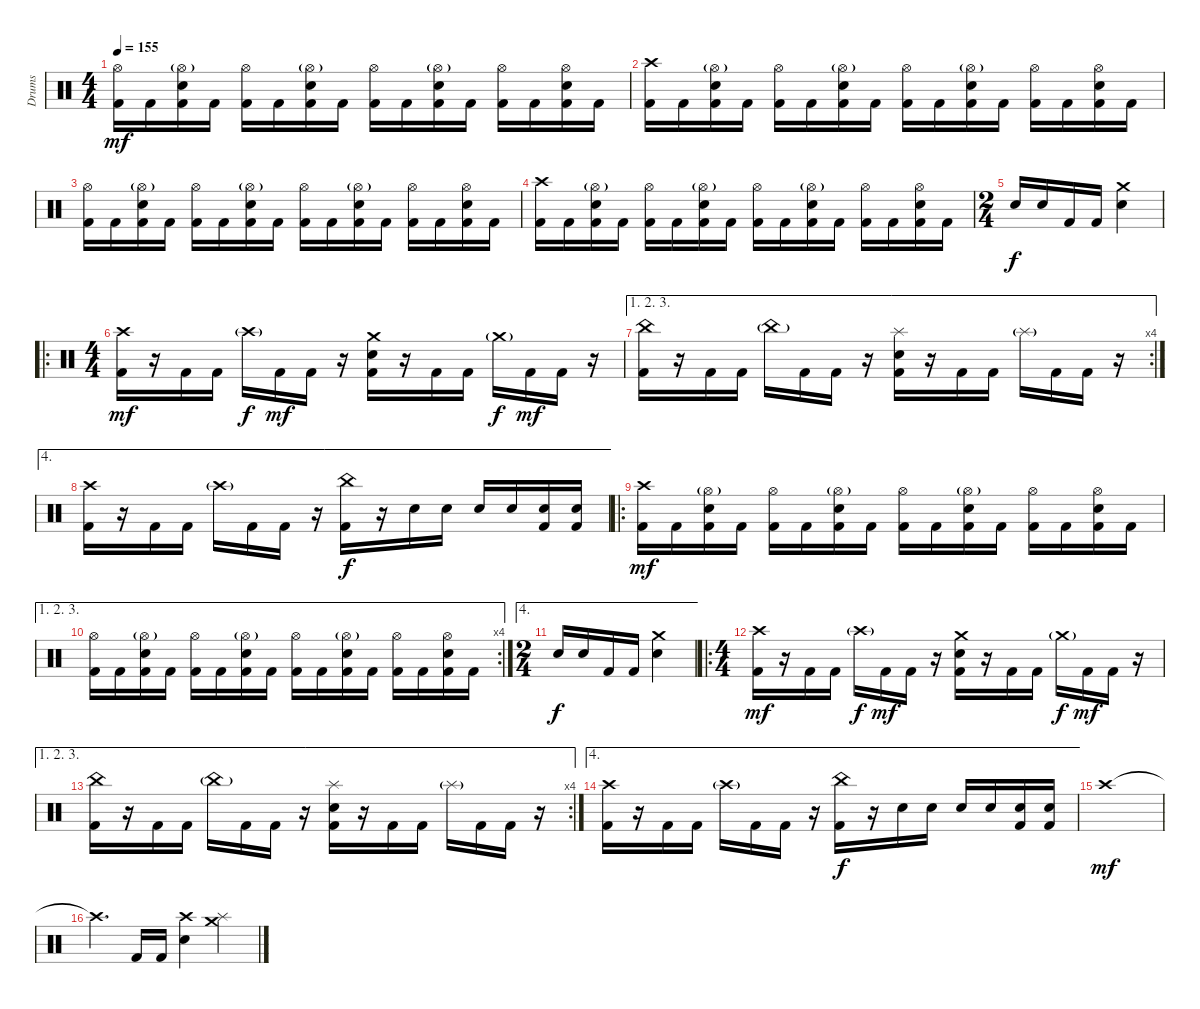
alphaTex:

\track ("Drums" "Drums") {instrument percussion}
\staff {score}
\articulation defaults
\ts (4 4)
\tempo 155
\clef neutral
\ks c
("Kick (hit) 2" "Hi-Hat (open)").16{dy mf} "Kick (hit) 2".16 ("Kick (hit) 2" "Snare (hit) 2" "Hi-Hat (open)"{g}).16 "Kick (hit) 2".16 ("Kick (hit) 2" "Hi-Hat (open)").16 "Kick (hit) 2".16 ("Kick (hit) 2" "Snare (hit) 2" "Hi-Hat (open)"{g}).16 "Kick (hit) 2".16 ("Kick (hit) 2" "Hi-Hat (open)").16 "Kick (hit) 2".16 ("Kick (hit) 2" "Snare (hit) 2" "Hi-Hat (open)"{g}).16 "Kick (hit) 2".16 ("Kick (hit) 2" "Hi-Hat (open)").16 "Kick (hit) 2".16 ("Kick (hit) 2" "Snare (hit) 2" "Hi-Hat (open)").16 "Kick (hit) 2".16 |
("Kick (hit) 2" "Crash high (hit)").16 "Kick (hit) 2".16 ("Kick (hit) 2" "Snare (hit) 2" "Hi-Hat (open)"{g}).16 "Kick (hit) 2".16 ("Kick (hit) 2" "Hi-Hat (open)").16 "Kick (hit) 2".16 ("Kick (hit) 2" "Snare (hit) 2" "Hi-Hat (open)"{g}).16 "Kick (hit) 2".16 ("Kick (hit) 2" "Hi-Hat (open)").16 "Kick (hit) 2".16 ("Kick (hit) 2" "Snare (hit) 2" "Hi-Hat (open)"{g}).16 "Kick (hit) 2".16 ("Kick (hit) 2" "Hi-Hat (open)").16 "Kick (hit) 2".16 ("Kick (hit) 2" "Snare (hit) 2" "Hi-Hat (open)").16 "Kick (hit) 2".16 |
("Kick (hit) 2" "Hi-Hat (open)").16 "Kick (hit) 2".16 ("Kick (hit) 2" "Snare (hit) 2" "Hi-Hat (open)"{g}).16 "Kick (hit) 2".16 ("Kick (hit) 2" "Hi-Hat (open)").16 "Kick (hit) 2".16 ("Kick (hit) 2" "Snare (hit) 2" "Hi-Hat (open)"{g}).16 "Kick (hit) 2".16 ("Kick (hit) 2" "Hi-Hat (open)").16 "Kick (hit) 2".16 ("Kick (hit) 2" "Snare (hit) 2" "Hi-Hat (open)"{g}).16 "Kick (hit) 2".16 ("Kick (hit) 2" "Hi-Hat (open)").16 "Kick (hit) 2".16 ("Kick (hit) 2" "Snare (hit) 2" "Hi-Hat (open)").16 "Kick (hit) 2".16 |
("Kick (hit) 2" "Crash high (hit)").16 "Kick (hit) 2".16 ("Kick (hit) 2" "Snare (hit) 2" "Hi-Hat (open)"{g}).16 "Kick (hit) 2".16 ("Kick (hit) 2" "Hi-Hat (open)").16 "Kick (hit) 2".16 ("Kick (hit) 2" "Snare (hit) 2" "Hi-Hat (open)"{g}).16 "Kick (hit) 2".16 ("Kick (hit) 2" "Hi-Hat (open)").16 "Kick (hit) 2".16 ("Kick (hit) 2" "Snare (hit) 2" "Hi-Hat (open)"{g}).16 "Kick (hit) 2".16 ("Kick (hit) 2" "Hi-Hat (open)").16 "Kick (hit) 2".16 ("Kick (hit) 2" "Snare (hit) 2" "Hi-Hat (open)").16 "Kick (hit) 2".16 |
\ts (2 4)
"Snare (hit) 2".16{dy f} "Snare (hit) 2".16 "Kick (hit) 2".16 "Kick (hit) 2".16 ("Snare (hit) 2" "Crash medium (hit)").4 |
\ro
\ts (4 4)
("Kick (hit) 2" "Crash high (hit)").16{dy mf} r.16 "Kick (hit) 2".16 "Kick (hit) 2".16 "Crash high (hit)"{g}.16{dy f} "Kick (hit) 2".16{dy mf} "Kick (hit) 2".16 r.16 ("Kick (hit) 2" "Crash medium (hit)" "Snare (hit) 2").16 r.16 "Kick (hit) 2".16 "Kick (hit) 2".16 "Crash medium (hit)"{g}.16{dy f} "Kick (hit) 2".16{dy mf} "Kick (hit) 2".16 r.16 |
\ae (1 2 3)
\rc 4
("Kick (hit) 2" "China (hit)").16 r.16 "Kick (hit) 2".16 "Kick (hit) 2".16 "China (hit)"{g}.16 "Kick (hit) 2".16 "Kick (hit) 2".16 r.16 ("Kick (hit) 2" "Splash (hit)" "Snare (hit) 2").16 r.16 "Kick (hit) 2".16 "Kick (hit) 2".16 "Splash (hit)"{g}.16 "Kick (hit) 2".16 "Kick (hit) 2".16 r.16 |
\ae 4
("Kick (hit) 2" "Crash high (hit)").16 r.16 "Kick (hit) 2".16 "Kick (hit) 2".16 "Crash high (hit)"{g}.16 "Kick (hit) 2".16 "Kick (hit) 2".16 r.16 ("Kick (hit) 2" "China (hit)").16{dy f} r.16 "Snare (hit) 2".16 "Snare (hit) 2".16 "Snare (hit) 2".16 "Snare (hit) 2".16 ("Kick (hit) 2" "Snare (hit) 2").16 ("Kick (hit) 2" "Snare (hit) 2").16 |
\ro
("Kick (hit) 2" "Crash high (hit)").16{dy mf} "Kick (hit) 2".16 ("Kick (hit) 2" "Snare (hit) 2" "Hi-Hat (open)"{g}).16 "Kick (hit) 2".16 ("Kick (hit) 2" "Hi-Hat (open)").16 "Kick (hit) 2".16 ("Kick (hit) 2" "Snare (hit) 2" "Hi-Hat (open)"{g}).16 "Kick (hit) 2".16 ("Kick (hit) 2" "Hi-Hat (open)").16 "Kick (hit) 2".16 ("Kick (hit) 2" "Snare (hit) 2" "Hi-Hat (open)"{g}).16 "Kick (hit) 2".16 ("Kick (hit) 2" "Hi-Hat (open)").16 "Kick (hit) 2".16 ("Kick (hit) 2" "Snare (hit) 2" "Hi-Hat (open)").16 "Kick (hit) 2".16 |
\ae (1 2 3)
\rc 4
("Kick (hit) 2" "Hi-Hat (open)").16 "Kick (hit) 2".16 ("Kick (hit) 2" "Snare (hit) 2" "Hi-Hat (open)"{g}).16 "Kick (hit) 2".16 ("Kick (hit) 2" "Hi-Hat (open)").16 "Kick (hit) 2".16 ("Kick (hit) 2" "Snare (hit) 2" "Hi-Hat (open)"{g}).16 "Kick (hit) 2".16 ("Kick (hit) 2" "Hi-Hat (open)").16 "Kick (hit) 2".16 ("Kick (hit) 2" "Snare (hit) 2" "Hi-Hat (open)"{g}).16 "Kick (hit) 2".16 ("Kick (hit) 2" "Hi-Hat (open)").16 "Kick (hit) 2".16 ("Kick (hit) 2" "Snare (hit) 2" "Hi-Hat (open)").16 "Kick (hit) 2".16 |
\ae 4
\ts (2 4)
"Snare (hit) 2".16{dy f} "Snare (hit) 2".16 "Kick (hit) 2".16 "Kick (hit) 2".16 ("Snare (hit) 2" "Crash medium (hit)").4 |
\ro
\ts (4 4)
("Kick (hit) 2" "Crash high (hit)").16{dy mf} r.16 "Kick (hit) 2".16 "Kick (hit) 2".16 "Crash high (hit)"{g}.16{dy f} "Kick (hit) 2".16{dy mf} "Kick (hit) 2".16 r.16 ("Kick (hit) 2" "Crash medium (hit)" "Snare (hit) 2").16 r.16 "Kick (hit) 2".16 "Kick (hit) 2".16 "Crash medium (hit)"{g}.16{dy f} "Kick (hit) 2".16{dy mf} "Kick (hit) 2".16 r.16 |
\ae (1 2 3)
\rc 4
("Kick (hit) 2" "China (hit)").16 r.16 "Kick (hit) 2".16 "Kick (hit) 2".16 "China (hit)"{g}.16 "Kick (hit) 2".16 "Kick (hit) 2".16 r.16 ("Kick (hit) 2" "Splash (hit)" "Snare (hit) 2").16 r.16 "Kick (hit) 2".16 "Kick (hit) 2".16 "Splash (hit)"{g}.16 "Kick (hit) 2".16 "Kick (hit) 2".16 r.16 |
\ae 4
("Kick (hit) 2" "Crash high (hit)").16 r.16 "Kick (hit) 2".16 "Kick (hit) 2".16 "Crash high (hit)"{g}.16 "Kick (hit) 2".16 "Kick (hit) 2".16 r.16 ("Kick (hit) 2" "China (hit)").16{dy f} r.16 "Snare (hit) 2".16 "Snare (hit) 2".16 "Snare (hit) 2".16 "Snare (hit) 2".16 ("Kick (hit) 2" "Snare (hit) 2").16 ("Kick (hit) 2" "Snare (hit) 2").16 |
"Crash high (hit)".1{dy mf} |
"Crash high (hit)"{t}.4{d} "Kick (hit) 2".16 "Kick (hit) 2".16 ("Snare (hit) 2" "Crash high (hit)").4 ("Splash (hit)" "Crash medium (hit)").4
